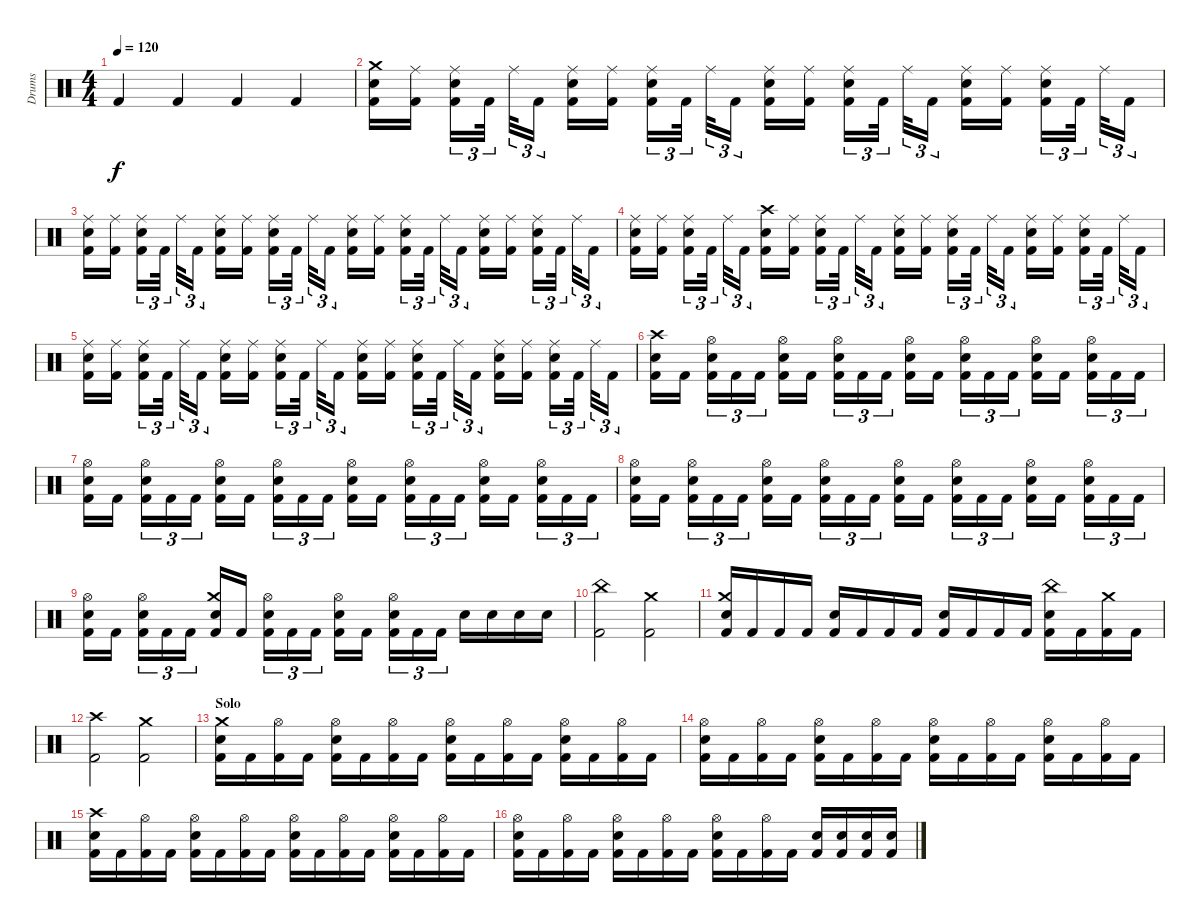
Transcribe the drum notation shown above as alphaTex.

\track ("Drums" "Drums") {instrument percussion}
\staff {score}
\articulation defaults
\ts (4 4)
\tempo 120
\clef neutral
\ks c "Kick (hit) 2".4{dy f} "Kick (hit) 2".4 "Kick (hit) 2".4 "Kick (hit) 2".4
|
("Crash medium (hit)" "Snare (hit) 2" "Kick (hit) 2").16 ("Ride (middle)" "Kick (hit) 2").16 ("Ride (middle)" "Snare (hit) 2" "Kick (hit) 2").16{tu (3 2)} "Kick (hit) 2".32{tu (3 2)} "Ride (middle)".32{tu (3 2)} "Kick (hit) 2".16{tu (3 2)} ("Ride (middle)" "Snare (hit) 2" "Kick (hit) 2").16 ("Ride (middle)" "Kick (hit) 2").16 ("Ride (middle)" "Snare (hit) 2" "Kick (hit) 2").16{tu (3 2)} "Kick (hit) 2".32{tu (3 2)} "Ride (middle)".32{tu (3 2)} "Kick (hit) 2".16{tu (3 2)} ("Ride (middle)" "Snare (hit) 2" "Kick (hit) 2").16 ("Ride (middle)" "Kick (hit) 2").16 ("Ride (middle)" "Snare (hit) 2" "Kick (hit) 2").16{tu (3 2)} "Kick (hit) 2".32{tu (3 2)} "Ride (middle)".32{tu (3 2)} "Kick (hit) 2".16{tu (3 2)} ("Ride (middle)" "Snare (hit) 2" "Kick (hit) 2").16 ("Ride (middle)" "Kick (hit) 2").16 ("Ride (middle)" "Snare (hit) 2" "Kick (hit) 2").16{tu (3 2)} "Kick (hit) 2".32{tu (3 2)} "Ride (middle)".32{tu (3 2)} "Kick (hit) 2".16{tu (3 2)} |
("Ride (middle)" "Snare (hit) 2" "Kick (hit) 2").16 ("Ride (middle)" "Kick (hit) 2").16 ("Ride (middle)" "Snare (hit) 2" "Kick (hit) 2").16{tu (3 2)} "Kick (hit) 2".32{tu (3 2)} "Ride (middle)".32{tu (3 2)} "Kick (hit) 2".16{tu (3 2)} ("Ride (middle)" "Snare (hit) 2" "Kick (hit) 2").16 ("Ride (middle)" "Kick (hit) 2").16 ("Ride (middle)" "Snare (hit) 2" "Kick (hit) 2").16{tu (3 2)} "Kick (hit) 2".32{tu (3 2)} "Ride (middle)".32{tu (3 2)} "Kick (hit) 2".16{tu (3 2)} ("Ride (middle)" "Snare (hit) 2" "Kick (hit) 2").16 ("Ride (middle)" "Kick (hit) 2").16 ("Ride (middle)" "Snare (hit) 2" "Kick (hit) 2").16{tu (3 2)} "Kick (hit) 2".32{tu (3 2)} "Ride (middle)".32{tu (3 2)} "Kick (hit) 2".16{tu (3 2)} ("Ride (middle)" "Snare (hit) 2" "Kick (hit) 2").16 ("Ride (middle)" "Kick (hit) 2").16 ("Ride (middle)" "Snare (hit) 2" "Kick (hit) 2").16{tu (3 2)} "Kick (hit) 2".32{tu (3 2)} "Ride (middle)".32{tu (3 2)} "Kick (hit) 2".16{tu (3 2)} |
("Ride (middle)" "Snare (hit) 2" "Kick (hit) 2").16 ("Ride (middle)" "Kick (hit) 2").16 ("Ride (middle)" "Snare (hit) 2" "Kick (hit) 2").16{tu (3 2)} "Kick (hit) 2".32{tu (3 2)} "Ride (middle)".32{tu (3 2)} "Kick (hit) 2".16{tu (3 2)} ("Crash high (hit)" "Snare (hit) 2" "Kick (hit) 2").16 ("Ride (middle)" "Kick (hit) 2").16 ("Ride (middle)" "Snare (hit) 2" "Kick (hit) 2").16{tu (3 2)} "Kick (hit) 2".32{tu (3 2)} "Ride (middle)".32{tu (3 2)} "Kick (hit) 2".16{tu (3 2)} ("Ride (middle)" "Snare (hit) 2" "Kick (hit) 2").16 ("Ride (middle)" "Kick (hit) 2").16 ("Ride (middle)" "Snare (hit) 2" "Kick (hit) 2").16{tu (3 2)} "Kick (hit) 2".32{tu (3 2)} "Ride (middle)".32{tu (3 2)} "Kick (hit) 2".16{tu (3 2)} ("Ride (middle)" "Snare (hit) 2" "Kick (hit) 2").16 ("Ride (middle)" "Kick (hit) 2").16 ("Ride (middle)" "Snare (hit) 2" "Kick (hit) 2").16{tu (3 2)} "Kick (hit) 2".32{tu (3 2)} "Ride (middle)".32{tu (3 2)} "Kick (hit) 2".16{tu (3 2)} |
("Ride (middle)" "Snare (hit) 2" "Kick (hit) 2").16 ("Ride (middle)" "Kick (hit) 2").16 ("Ride (middle)" "Snare (hit) 2" "Kick (hit) 2").16{tu (3 2)} "Kick (hit) 2".32{tu (3 2)} "Ride (middle)".32{tu (3 2)} "Kick (hit) 2".16{tu (3 2)} ("Ride (middle)" "Snare (hit) 2" "Kick (hit) 2").16 ("Ride (middle)" "Kick (hit) 2").16 ("Ride (middle)" "Snare (hit) 2" "Kick (hit) 2").16{tu (3 2)} "Kick (hit) 2".32{tu (3 2)} "Ride (middle)".32{tu (3 2)} "Kick (hit) 2".16{tu (3 2)} ("Ride (middle)" "Snare (hit) 2" "Kick (hit) 2").16 ("Ride (middle)" "Kick (hit) 2").16 ("Ride (middle)" "Snare (hit) 2" "Kick (hit) 2").16{tu (3 2)} "Kick (hit) 2".32{tu (3 2)} "Ride (middle)".32{tu (3 2)} "Kick (hit) 2".16{tu (3 2)} ("Ride (middle)" "Snare (hit) 2" "Kick (hit) 2").16 ("Ride (middle)" "Kick (hit) 2").16 ("Ride (middle)" "Snare (hit) 2" "Kick (hit) 2").16{tu (3 2)} "Kick (hit) 2".32{tu (3 2)} "Ride (middle)".32{tu (3 2)} "Kick (hit) 2".16{tu (3 2)} |
("Crash high (hit)" "Snare (hit) 2" "Kick (hit) 2").16 "Kick (hit) 2".16 ("Hi-Hat (open)" "Snare (hit) 2" "Kick (hit) 2").16{tu (3 2)} "Kick (hit) 2".16{tu (3 2)} "Kick (hit) 2".16{tu (3 2)} ("Hi-Hat (open)" "Snare (hit) 2" "Kick (hit) 2").16 "Kick (hit) 2".16 ("Hi-Hat (open)" "Snare (hit) 2" "Kick (hit) 2").16{tu (3 2)} "Kick (hit) 2".16{tu (3 2)} "Kick (hit) 2".16{tu (3 2)} ("Hi-Hat (open)" "Snare (hit) 2" "Kick (hit) 2").16 "Kick (hit) 2".16 ("Hi-Hat (open)" "Snare (hit) 2" "Kick (hit) 2").16{tu (3 2)} "Kick (hit) 2".16{tu (3 2)} "Kick (hit) 2".16{tu (3 2)} ("Hi-Hat (open)" "Snare (hit) 2" "Kick (hit) 2").16 "Kick (hit) 2".16 ("Hi-Hat (open)" "Snare (hit) 2" "Kick (hit) 2").16{tu (3 2)} "Kick (hit) 2".16{tu (3 2)} "Kick (hit) 2".16{tu (3 2)} |
("Hi-Hat (open)" "Snare (hit) 2" "Kick (hit) 2").16 "Kick (hit) 2".16 ("Hi-Hat (open)" "Snare (hit) 2" "Kick (hit) 2").16{tu (3 2)} "Kick (hit) 2".16{tu (3 2)} "Kick (hit) 2".16{tu (3 2)} ("Hi-Hat (open)" "Snare (hit) 2" "Kick (hit) 2").16 "Kick (hit) 2".16 ("Hi-Hat (open)" "Snare (hit) 2" "Kick (hit) 2").16{tu (3 2)} "Kick (hit) 2".16{tu (3 2)} "Kick (hit) 2".16{tu (3 2)} ("Hi-Hat (open)" "Snare (hit) 2" "Kick (hit) 2").16 "Kick (hit) 2".16 ("Hi-Hat (open)" "Snare (hit) 2" "Kick (hit) 2").16{tu (3 2)} "Kick (hit) 2".16{tu (3 2)} "Kick (hit) 2".16{tu (3 2)} ("Hi-Hat (open)" "Snare (hit) 2" "Kick (hit) 2").16 "Kick (hit) 2".16 ("Hi-Hat (open)" "Snare (hit) 2" "Kick (hit) 2").16{tu (3 2)} "Kick (hit) 2".16{tu (3 2)} "Kick (hit) 2".16{tu (3 2)} |
("Hi-Hat (open)" "Snare (hit) 2" "Kick (hit) 2").16 "Kick (hit) 2".16 ("Hi-Hat (open)" "Snare (hit) 2" "Kick (hit) 2").16{tu (3 2)} "Kick (hit) 2".16{tu (3 2)} "Kick (hit) 2".16{tu (3 2)} ("Hi-Hat (open)" "Snare (hit) 2" "Kick (hit) 2").16 "Kick (hit) 2".16 ("Hi-Hat (open)" "Snare (hit) 2" "Kick (hit) 2").16{tu (3 2)} "Kick (hit) 2".16{tu (3 2)} "Kick (hit) 2".16{tu (3 2)} ("Hi-Hat (open)" "Snare (hit) 2" "Kick (hit) 2").16 "Kick (hit) 2".16 ("Hi-Hat (open)" "Snare (hit) 2" "Kick (hit) 2").16{tu (3 2)} "Kick (hit) 2".16{tu (3 2)} "Kick (hit) 2".16{tu (3 2)} ("Hi-Hat (open)" "Snare (hit) 2" "Kick (hit) 2").16 "Kick (hit) 2".16 ("Hi-Hat (open)" "Snare (hit) 2" "Kick (hit) 2").16{tu (3 2)} "Kick (hit) 2".16{tu (3 2)} "Kick (hit) 2".16{tu (3 2)} |
("Hi-Hat (open)" "Snare (hit) 2" "Kick (hit) 2").16 "Kick (hit) 2".16 ("Hi-Hat (open)" "Snare (hit) 2" "Kick (hit) 2").16{tu (3 2)} "Kick (hit) 2".16{tu (3 2)} "Kick (hit) 2".16{tu (3 2)} ("Crash medium (hit)" "Snare (hit) 2" "Kick (hit) 2").16 "Kick (hit) 2".16 ("Hi-Hat (open)" "Snare (hit) 2" "Kick (hit) 2").16{tu (3 2)} "Kick (hit) 2".16{tu (3 2)} "Kick (hit) 2".16{tu (3 2)} ("Hi-Hat (open)" "Snare (hit) 2" "Kick (hit) 2").16 "Kick (hit) 2".16 ("Hi-Hat (open)" "Snare (hit) 2" "Kick (hit) 2").16{tu (3 2)} "Kick (hit) 2".16{tu (3 2)} "Kick (hit) 2".16{tu (3 2)} "Snare (hit) 2".16 "Snare (hit) 2".16 "Snare (hit) 2".16 "Snare (hit) 2".16 |
("China (hit)" "Kick (hit) 2").2 ("Crash medium (hit)" "Kick (hit) 2").2 |
("Crash medium (hit)" "Snare (hit) 2" "Kick (hit) 2").16 "Kick (hit) 2".16 "Kick (hit) 2".16 "Kick (hit) 2".16 ("Snare (hit) 2" "Kick (hit) 2").16 "Kick (hit) 2".16 "Kick (hit) 2".16 "Kick (hit) 2".16 ("Snare (hit) 2" "Kick (hit) 2").16 "Kick (hit) 2".16 "Kick (hit) 2".16 "Kick (hit) 2".16 ("China (hit)" "Snare (hit) 2" "Kick (hit) 2").16 "Kick (hit) 2".16 ("Crash medium (hit)" "Kick (hit) 2").16 "Kick (hit) 2".16 |
("Crash high (hit)" "Kick (hit) 2").2 ("Crash medium (hit)" "Kick (hit) 2").2 |
\section ("" "Solo")
("Crash medium (hit)" "Snare (hit) 2" "Kick (hit) 2").16 "Kick (hit) 2".16 ("Hi-Hat (open)" "Kick (hit) 2").16 "Kick (hit) 2".16 ("Hi-Hat (open)" "Snare (hit) 2" "Kick (hit) 2").16 "Kick (hit) 2".16 ("Hi-Hat (open)" "Kick (hit) 2").16 "Kick (hit) 2".16 ("Hi-Hat (open)" "Snare (hit) 2" "Kick (hit) 2").16 "Kick (hit) 2".16 ("Hi-Hat (open)" "Kick (hit) 2").16 "Kick (hit) 2".16 ("Hi-Hat (open)" "Snare (hit) 2" "Kick (hit) 2").16 "Kick (hit) 2".16 ("Hi-Hat (open)" "Kick (hit) 2").16 "Kick (hit) 2".16 |
("Hi-Hat (open)" "Snare (hit) 2" "Kick (hit) 2").16 "Kick (hit) 2".16 ("Hi-Hat (open)" "Kick (hit) 2").16 "Kick (hit) 2".16 ("Hi-Hat (open)" "Snare (hit) 2" "Kick (hit) 2").16 "Kick (hit) 2".16 ("Hi-Hat (open)" "Kick (hit) 2").16 "Kick (hit) 2".16 ("Hi-Hat (open)" "Snare (hit) 2" "Kick (hit) 2").16 "Kick (hit) 2".16 ("Hi-Hat (open)" "Kick (hit) 2").16 "Kick (hit) 2".16 ("Hi-Hat (open)" "Snare (hit) 2" "Kick (hit) 2").16 "Kick (hit) 2".16 ("Hi-Hat (open)" "Kick (hit) 2").16 "Kick (hit) 2".16 |
("Crash high (hit)" "Snare (hit) 2" "Kick (hit) 2").16 "Kick (hit) 2".16 ("Hi-Hat (open)" "Kick (hit) 2").16 "Kick (hit) 2".16 ("Hi-Hat (open)" "Snare (hit) 2" "Kick (hit) 2").16 "Kick (hit) 2".16 ("Hi-Hat (open)" "Kick (hit) 2").16 "Kick (hit) 2".16 ("Hi-Hat (open)" "Snare (hit) 2" "Kick (hit) 2").16 "Kick (hit) 2".16 ("Hi-Hat (open)" "Kick (hit) 2").16 "Kick (hit) 2".16 ("Hi-Hat (open)" "Snare (hit) 2" "Kick (hit) 2").16 "Kick (hit) 2".16 ("Hi-Hat (open)" "Kick (hit) 2").16 "Kick (hit) 2".16 |
("Hi-Hat (open)" "Snare (hit) 2" "Kick (hit) 2").16 "Kick (hit) 2".16 ("Hi-Hat (open)" "Kick (hit) 2").16 "Kick (hit) 2".16 ("Hi-Hat (open)" "Snare (hit) 2" "Kick (hit) 2").16 "Kick (hit) 2".16 ("Hi-Hat (open)" "Kick (hit) 2").16 "Kick (hit) 2".16 ("Hi-Hat (open)" "Snare (hit) 2" "Kick (hit) 2").16 "Kick (hit) 2".16 ("Hi-Hat (open)" "Kick (hit) 2").16 "Kick (hit) 2".16 ("Snare (hit) 2" "Kick (hit) 2").16 ("Snare (hit) 2" "Kick (hit) 2").16 ("Snare (hit) 2" "Kick (hit) 2").16 ("Snare (hit) 2" "Kick (hit) 2").16
